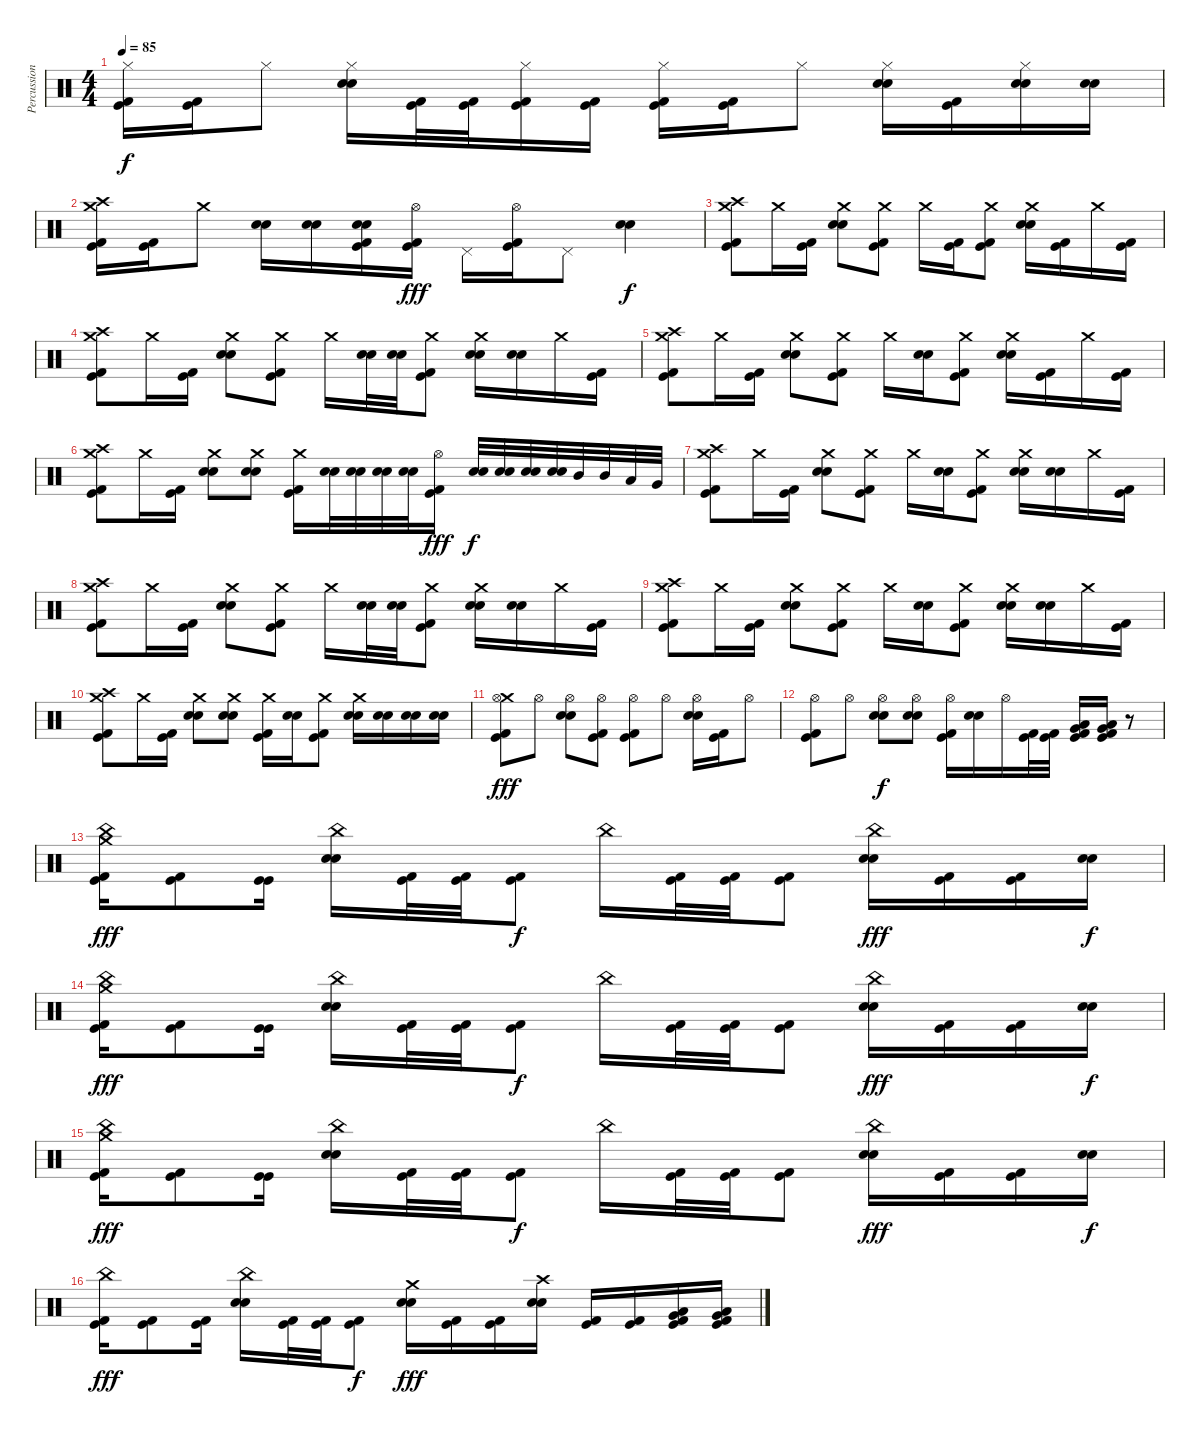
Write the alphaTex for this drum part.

\track ("Percussion" "Percussion") {instrument percussion}
\staff {score}
\articulation defaults
\ts (4 4)
\tempo 85
\clef neutral
\ks c
("Hi-Hat (closed)" "Kick (hit)" "Kick (hit) 2").16{dy f} ("Kick (hit)" "Kick (hit) 2").16 "Hi-Hat (closed)".8 ("Hi-Hat (closed)" "Electric Snare (hit)" "Snare (hit) 2").16 ("Kick (hit)" "Kick (hit) 2").32 ("Kick (hit)" "Kick (hit) 2").32 ("Hi-Hat (closed)" "Kick (hit)" "Kick (hit) 2").16 ("Kick (hit)" "Kick (hit) 2").16 ("Hi-Hat (closed)" "Kick (hit)" "Kick (hit) 2").16 ("Kick (hit)" "Kick (hit) 2").16 "Hi-Hat (closed)".8 ("Hi-Hat (closed)" "Electric Snare (hit)" "Snare (hit) 2").16 ("Kick (hit)" "Kick (hit) 2").16 ("Hi-Hat (closed)" "Electric Snare (hit)" "Snare (hit) 2").16 ("Electric Snare (hit)" "Snare (hit) 2").16 |
("Crash high (hit)" "Crash medium (hit)" "Kick (hit)" "Kick (hit) 2").16 ("Kick (hit)" "Kick (hit) 2").16 "Crash medium (hit)".8 ("Electric Snare (hit)" "Snare (hit) 2").16 ("Electric Snare (hit)" "Snare (hit) 2").16 ("Electric Snare (hit)" "Snare (hit) 2" "Kick (hit)" "Kick (hit) 2").16 ("Hi-Hat (open)" "Kick (hit)" "Kick (hit) 2").16{dy fff} "Pedal Hi-Hat (hit)".16 ("Hi-Hat (open)" "Kick (hit)" "Kick (hit) 2").16 "Pedal Hi-Hat (hit)".8 ("Electric Snare (hit)" "Snare (hit) 2").4{dy f} |
("Crash high (hit)" "Crash medium (hit)" "Kick (hit)" "Kick (hit) 2").8 "Crash medium (hit)".16 ("Kick (hit)" "Kick (hit) 2").16 ("Crash medium (hit)" "Electric Snare (hit)" "Snare (hit) 2").8 ("Crash medium (hit)" "Kick (hit)" "Kick (hit) 2").8 "Crash medium (hit)".16 ("Kick (hit)" "Kick (hit) 2").16 ("Crash medium (hit)" "Kick (hit)" "Kick (hit) 2").8 ("Crash medium (hit)" "Electric Snare (hit)" "Snare (hit) 2").16 ("Kick (hit)" "Kick (hit) 2").16 "Crash medium (hit)".16 ("Kick (hit)" "Kick (hit) 2").16 |
("Crash high (hit)" "Crash medium (hit)" "Kick (hit)" "Kick (hit) 2").8 "Crash medium (hit)".16 ("Kick (hit)" "Kick (hit) 2").16 ("Crash medium (hit)" "Electric Snare (hit)" "Snare (hit) 2").8 ("Crash medium (hit)" "Kick (hit)" "Kick (hit) 2").8 "Crash medium (hit)".16 ("Electric Snare (hit)" "Snare (hit) 2").32 ("Electric Snare (hit)" "Snare (hit) 2").32 ("Crash medium (hit)" "Kick (hit)" "Kick (hit) 2").8 ("Crash medium (hit)" "Electric Snare (hit)" "Snare (hit) 2").16 ("Electric Snare (hit)" "Snare (hit) 2").16 "Crash medium (hit)".16 ("Kick (hit)" "Kick (hit) 2").16 |
("Crash high (hit)" "Crash medium (hit)" "Kick (hit)" "Kick (hit) 2").8 "Crash medium (hit)".16 ("Kick (hit)" "Kick (hit) 2").16 ("Crash medium (hit)" "Electric Snare (hit)" "Snare (hit) 2").8 ("Crash medium (hit)" "Kick (hit)" "Kick (hit) 2").8 "Crash medium (hit)".16 ("Electric Snare (hit)" "Snare (hit) 2").16 ("Crash medium (hit)" "Kick (hit)" "Kick (hit) 2").8 ("Crash medium (hit)" "Electric Snare (hit)" "Snare (hit) 2").16 ("Kick (hit)" "Kick (hit) 2").16 "Crash medium (hit)".16 ("Kick (hit)" "Kick (hit) 2").16 |
("Crash high (hit)" "Crash medium (hit)" "Kick (hit)" "Kick (hit) 2").8 "Crash medium (hit)".16 ("Kick (hit)" "Kick (hit) 2").16 ("Crash medium (hit)" "Electric Snare (hit)" "Snare (hit) 2").8 ("Crash medium (hit)" "Electric Snare (hit)" "Snare (hit) 2").8 ("Crash medium (hit)" "Kick (hit)" "Kick (hit) 2").16 ("Electric Snare (hit)" "Snare (hit) 2").32 ("Electric Snare (hit)" "Snare (hit) 2").32 ("Electric Snare (hit)" "Snare (hit) 2").32 ("Electric Snare (hit)" "Snare (hit) 2").32 ("Hi-Hat (open)" "Kick (hit)" "Kick (hit) 2").16{dy fff} ("Electric Snare (hit)" "Snare (hit) 2").32{dy f} ("Electric Snare (hit)" "Snare (hit) 2").32 ("Electric Snare (hit)" "Snare (hit) 2").32 ("Electric Snare (hit)" "Snare (hit) 2").32 "Mid Tom (hit)".32 "Mid Tom (hit)".32 "Low Tom (hit)".32 "Very Low Tom (hit)".32 |
("Crash high (hit)" "Crash medium (hit)" "Kick (hit)" "Kick (hit) 2").8 "Crash medium (hit)".16 ("Kick (hit)" "Kick (hit) 2").16 ("Crash medium (hit)" "Electric Snare (hit)" "Snare (hit) 2").8 ("Crash medium (hit)" "Kick (hit)" "Kick (hit) 2").8 "Crash medium (hit)".16 ("Electric Snare (hit)" "Snare (hit) 2").16 ("Crash medium (hit)" "Kick (hit)" "Kick (hit) 2").8 ("Crash medium (hit)" "Electric Snare (hit)" "Snare (hit) 2").16 ("Electric Snare (hit)" "Snare (hit) 2").16 "Crash medium (hit)".16 ("Kick (hit)" "Kick (hit) 2").16 |
("Crash high (hit)" "Crash medium (hit)" "Kick (hit)" "Kick (hit) 2").8 "Crash medium (hit)".16 ("Kick (hit)" "Kick (hit) 2").16 ("Crash medium (hit)" "Electric Snare (hit)" "Snare (hit) 2").8 ("Crash medium (hit)" "Kick (hit)" "Kick (hit) 2").8 "Crash medium (hit)".16 ("Electric Snare (hit)" "Snare (hit) 2").32 ("Electric Snare (hit)" "Snare (hit) 2").32 ("Crash medium (hit)" "Kick (hit)" "Kick (hit) 2").8 ("Crash medium (hit)" "Electric Snare (hit)" "Snare (hit) 2").16 ("Electric Snare (hit)" "Snare (hit) 2").16 "Crash medium (hit)".16 ("Kick (hit)" "Kick (hit) 2").16 |
("Crash high (hit)" "Crash medium (hit)" "Kick (hit)" "Kick (hit) 2").8 "Crash medium (hit)".16 ("Kick (hit)" "Kick (hit) 2").16 ("Crash medium (hit)" "Electric Snare (hit)" "Snare (hit) 2").8 ("Crash medium (hit)" "Kick (hit)" "Kick (hit) 2").8 "Crash medium (hit)".16 ("Electric Snare (hit)" "Snare (hit) 2").16 ("Crash medium (hit)" "Kick (hit)" "Kick (hit) 2").8 ("Crash medium (hit)" "Electric Snare (hit)" "Snare (hit) 2").16 ("Electric Snare (hit)" "Snare (hit) 2").16 "Crash medium (hit)".16 ("Kick (hit)" "Kick (hit) 2").16 |
("Crash high (hit)" "Crash medium (hit)" "Kick (hit)" "Kick (hit) 2").8 "Crash medium (hit)".16 ("Kick (hit)" "Kick (hit) 2").16 ("Crash medium (hit)" "Electric Snare (hit)" "Snare (hit) 2").8 ("Crash medium (hit)" "Electric Snare (hit)" "Snare (hit) 2").8 ("Crash medium (hit)" "Kick (hit)" "Kick (hit) 2").16 ("Electric Snare (hit)" "Snare (hit) 2").16 ("Crash medium (hit)" "Kick (hit)" "Kick (hit) 2").8 ("Crash medium (hit)" "Electric Snare (hit)" "Snare (hit) 2").16 ("Electric Snare (hit)" "Snare (hit) 2").16 ("Electric Snare (hit)" "Snare (hit) 2").16 ("Electric Snare (hit)" "Snare (hit) 2").16 |
("Crash medium (hit)" "Hi-Hat (open)" "Kick (hit)" "Kick (hit) 2").8{dy fff} "Hi-Hat (open)".8 ("Hi-Hat (open)" "Electric Snare (hit)" "Snare (hit) 2").8 ("Hi-Hat (open)" "Kick (hit)" "Kick (hit) 2").8 ("Hi-Hat (open)" "Kick (hit)" "Kick (hit) 2").8 "Hi-Hat (open)".8 ("Hi-Hat (open)" "Electric Snare (hit)" "Snare (hit) 2").16 ("Kick (hit)" "Kick (hit) 2").16 "Hi-Hat (open)".8 |
("Hi-Hat (open)" "Kick (hit)" "Kick (hit) 2").8 "Hi-Hat (open)".8 ("Hi-Hat (open)" "Electric Snare (hit)" "Snare (hit) 2").8{dy f} ("Hi-Hat (open)" "Electric Snare (hit)" "Snare (hit) 2").8 ("Hi-Hat (open)" "Kick (hit)" "Kick (hit) 2").16 ("Electric Snare (hit)" "Snare (hit) 2").16 "Hi-Hat (open)".16 ("Kick (hit)" "Kick (hit) 2").32 ("Kick (hit)" "Kick (hit) 2").32 ("Low Tom (hit)" "Very Low Tom (hit)" "Kick (hit)" "Kick (hit) 2").16 ("Very Low Tom (hit)" "Low Floor Tom (hit)" "Kick (hit)" "Kick (hit) 2").16 r.8 |
("Crash medium (hit)" "China (hit)" "Kick (hit)" "Kick (hit) 2").16{dy fff} ("Kick (hit)" "Kick (hit) 2").8 ("Kick (hit)" "Kick (hit)").16 ("China (hit)" "Electric Snare (hit)" "Snare (hit) 2").16 ("Kick (hit)" "Kick (hit) 2").32 ("Kick (hit)" "Kick (hit) 2").32 ("Kick (hit)" "Kick (hit) 2").8{dy f} "China (hit)".16 ("Kick (hit)" "Kick (hit) 2").32 ("Kick (hit)" "Kick (hit) 2").32 ("Kick (hit)" "Kick (hit) 2").8 ("China (hit)" "Electric Snare (hit)" "Snare (hit) 2").16{dy fff} ("Kick (hit)" "Kick (hit) 2").16 ("Kick (hit)" "Kick (hit) 2").16 ("Electric Snare (hit)" "Snare (hit) 2").16{dy f} |
("Crash medium (hit)" "China (hit)" "Kick (hit)" "Kick (hit) 2").16{dy fff} ("Kick (hit)" "Kick (hit) 2").8 ("Kick (hit)" "Kick (hit)").16 ("China (hit)" "Electric Snare (hit)" "Snare (hit) 2").16 ("Kick (hit)" "Kick (hit) 2").32 ("Kick (hit)" "Kick (hit) 2").32 ("Kick (hit)" "Kick (hit) 2").8{dy f} "China (hit)".16 ("Kick (hit)" "Kick (hit) 2").32 ("Kick (hit)" "Kick (hit) 2").32 ("Kick (hit)" "Kick (hit) 2").8 ("China (hit)" "Electric Snare (hit)" "Snare (hit) 2").16{dy fff} ("Kick (hit)" "Kick (hit) 2").16 ("Kick (hit)" "Kick (hit) 2").16 ("Electric Snare (hit)" "Snare (hit) 2").16{dy f} |
("Crash medium (hit)" "China (hit)" "Kick (hit)" "Kick (hit) 2").16{dy fff} ("Kick (hit)" "Kick (hit) 2").8 ("Kick (hit)" "Kick (hit)").16 ("China (hit)" "Electric Snare (hit)" "Snare (hit) 2").16 ("Kick (hit)" "Kick (hit) 2").32 ("Kick (hit)" "Kick (hit) 2").32 ("Kick (hit)" "Kick (hit) 2").8{dy f} "China (hit)".16 ("Kick (hit)" "Kick (hit) 2").32 ("Kick (hit)" "Kick (hit) 2").32 ("Kick (hit)" "Kick (hit) 2").8 ("China (hit)" "Electric Snare (hit)" "Snare (hit) 2").16{dy fff} ("Kick (hit)" "Kick (hit) 2").16 ("Kick (hit)" "Kick (hit) 2").16 ("Electric Snare (hit)" "Snare (hit) 2").16{dy f} |
("China (hit)" "Kick (hit)" "Kick (hit) 2").16{dy fff} ("Kick (hit)" "Kick (hit) 2").8 ("Kick (hit)" "Kick (hit) 2").16 ("China (hit)" "Electric Snare (hit)" "Snare (hit) 2").16 ("Kick (hit)" "Kick (hit) 2").32 ("Kick (hit)" "Kick (hit) 2").32 ("Kick (hit)" "Kick (hit) 2").8{dy f} ("Crash medium (hit)" "Electric Snare (hit)" "Snare (hit) 2").16{dy fff} ("Kick (hit)" "Kick (hit) 2").16 ("Kick (hit)" "Kick (hit) 2").16 ("Crash high (hit)" "Electric Snare (hit)" "Snare (hit) 2").16 ("Kick (hit)" "Kick (hit) 2").16 ("Kick (hit)" "Kick (hit) 2").16 ("Very Low Tom (hit)" "Low Floor Tom (hit)" "Kick (hit)" "Kick (hit) 2").16 ("Very Low Tom (hit)" "Low Floor Tom (hit)" "Kick (hit)" "Kick (hit) 2").16
